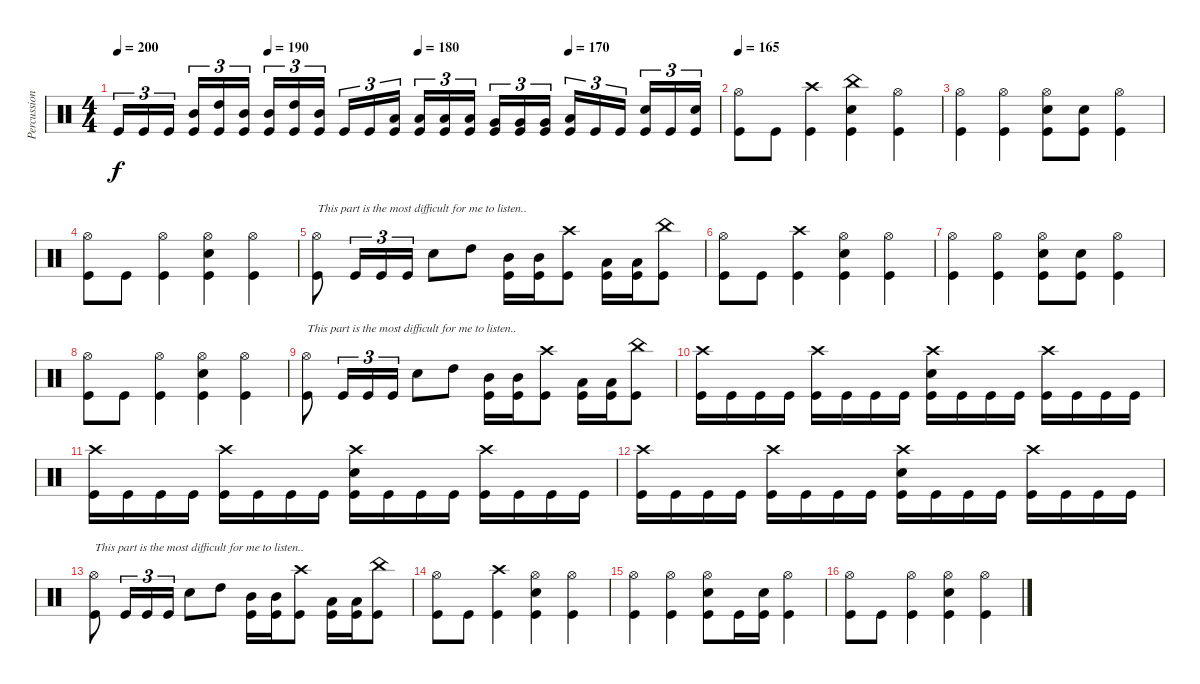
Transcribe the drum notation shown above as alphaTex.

\track ("Percussioni" "Percussion") {instrument percussion}
\staff {score}
\articulation defaults
\ts (4 4)
\tempo 200
\tempo (190 0.25)
\tempo (180 0.5)
\tempo (170 0.75)
\clef neutral
\ks c "Kick (hit)".16{tu (3 2) dy f} "Kick (hit)".16{tu (3 2)} "Kick (hit)".16{tu (3 2)}
("Mid Tom (hit)" "Kick (hit)").16{tu (3 2)} ("High Tom (hit)" "Kick (hit)").16{tu (3 2)} ("Mid Tom (hit)" "Kick (hit)").16{tu (3 2)} ("Mid Tom (hit)" "Kick (hit)").16{tu (3 2)} ("High Tom (hit)" "Kick (hit)").16{tu (3 2)} ("Mid Tom (hit)" "Kick (hit)").16{tu (3 2)} "Kick (hit)".16{tu (3 2)} "Kick (hit)".16{tu (3 2)} ("Low Tom (hit)" "Kick (hit)").16{tu (3 2)} ("Low Tom (hit)" "Kick (hit)").16{tu (3 2)} ("Low Tom (hit)" "Kick (hit)").16{tu (3 2)} ("Low Tom (hit)" "Kick (hit)").16{tu (3 2)} ("Very Low Tom (hit)" "Kick (hit)").16{tu (3 2)} ("Very Low Tom (hit)" "Kick (hit)").16{tu (3 2)} ("Very Low Tom (hit)" "Kick (hit)").16{tu (3 2)} ("Low Floor Tom (hit)" "Kick (hit)").16{tu (3 2)} "Kick (hit)".16{tu (3 2)} "Kick (hit)".16{tu (3 2)} ("Electric Snare (hit)" "Kick (hit)").16{tu (3 2)} "Kick (hit)".16{tu (3 2)} ("Electric Snare (hit)" "Kick (hit)").16{tu (3 2)} |
\tempo 165
("Hi-Hat (open)" "Kick (hit)").8 "Kick (hit)".8 ("Crash high (hit)" "Kick (hit)").4 ("China (hit)" "Electric Snare (hit)" "Kick (hit)").4 ("Hi-Hat (open)" "Kick (hit)").4 |
("Hi-Hat (open)" "Kick (hit)").4 ("Hi-Hat (open)" "Kick (hit)").4 ("Hi-Hat (open)" "Electric Snare (hit)" "Kick (hit)").8 ("Electric Snare (hit)" "Kick (hit)").8 ("Hi-Hat (open)" "Kick (hit)").4 |
("Hi-Hat (open)" "Kick (hit)").8 "Kick (hit)".8 ("Hi-Hat (open)" "Kick (hit)").4 ("Hi-Hat (open)" "Electric Snare (hit)" "Kick (hit)").4 ("Hi-Hat (open)" "Kick (hit)").4 |
("Hi-Hat (open)" "Kick (hit)").8{txt "This part is the most difficult for me to listen.."} "Kick (hit)".16{tu (3 2)} "Kick (hit)".16{tu (3 2)} "Kick (hit)".16{tu (3 2)} "Electric Snare (hit)".8 "High Tom (hit)".8 ("Mid Tom (hit)" "Kick (hit)").16 ("Mid Tom (hit)" "Kick (hit)").16 ("Crash high (hit)" "Kick (hit)").8 ("Low Tom (hit)" "Kick (hit)").16 ("Low Tom (hit)" "Kick (hit)").16 ("China (hit)" "Kick (hit)").8 |
("Hi-Hat (open)" "Kick (hit)").8 "Kick (hit)".8 ("Crash high (hit)" "Kick (hit)").4 ("Hi-Hat (open)" "Electric Snare (hit)" "Kick (hit)").4 ("Hi-Hat (open)" "Kick (hit)").4 |
("Hi-Hat (open)" "Kick (hit)").4 ("Hi-Hat (open)" "Kick (hit)").4 ("Hi-Hat (open)" "Electric Snare (hit)" "Kick (hit)").8 ("Electric Snare (hit)" "Kick (hit)").8 ("Hi-Hat (open)" "Kick (hit)").4 |
("Hi-Hat (open)" "Kick (hit)").8 "Kick (hit)".8 ("Hi-Hat (open)" "Kick (hit)").4 ("Hi-Hat (open)" "Electric Snare (hit)" "Kick (hit)").4 ("Hi-Hat (open)" "Kick (hit)").4 |
("Hi-Hat (open)" "Kick (hit)").8{txt "This part is the most difficult for me to listen.."} "Kick (hit)".16{tu (3 2)} "Kick (hit)".16{tu (3 2)} "Kick (hit)".16{tu (3 2)} "Electric Snare (hit)".8 "High Tom (hit)".8 ("Mid Tom (hit)" "Kick (hit)").16 ("Mid Tom (hit)" "Kick (hit)").16 ("Crash high (hit)" "Kick (hit)").8 ("Low Tom (hit)" "Kick (hit)").16 ("Low Tom (hit)" "Kick (hit)").16 ("China (hit)" "Kick (hit)").8 |
("Crash high (hit)" "Kick (hit)").16 "Kick (hit)".16 "Kick (hit)".16 "Kick (hit)".16 ("Crash high (hit)" "Kick (hit)").16 "Kick (hit)".16 "Kick (hit)".16 "Kick (hit)".16 ("Crash high (hit)" "Electric Snare (hit)" "Kick (hit)").16 "Kick (hit)".16 "Kick (hit)".16 "Kick (hit)".16 ("Crash high (hit)" "Kick (hit)").16 "Kick (hit)".16 "Kick (hit)".16 "Kick (hit)".16 |
("Crash high (hit)" "Kick (hit)").16 "Kick (hit)".16 "Kick (hit)".16 "Kick (hit)".16 ("Crash high (hit)" "Kick (hit)").16 "Kick (hit)".16 "Kick (hit)".16 "Kick (hit)".16 ("Crash high (hit)" "Electric Snare (hit)" "Kick (hit)").16 "Kick (hit)".16 "Kick (hit)".16 "Kick (hit)".16 ("Crash high (hit)" "Kick (hit)").16 "Kick (hit)".16 "Kick (hit)".16 "Kick (hit)".16 |
("Crash high (hit)" "Kick (hit)").16 "Kick (hit)".16 "Kick (hit)".16 "Kick (hit)".16 ("Crash high (hit)" "Kick (hit)").16 "Kick (hit)".16 "Kick (hit)".16 "Kick (hit)".16 ("Crash high (hit)" "Electric Snare (hit)" "Kick (hit)").16 "Kick (hit)".16 "Kick (hit)".16 "Kick (hit)".16 ("Crash high (hit)" "Kick (hit)").16 "Kick (hit)".16 "Kick (hit)".16 "Kick (hit)".16 |
("Hi-Hat (open)" "Kick (hit)").8{txt "This part is the most difficult for me to listen.."} "Kick (hit)".16{tu (3 2)} "Kick (hit)".16{tu (3 2)} "Kick (hit)".16{tu (3 2)} "Electric Snare (hit)".8 "High Tom (hit)".8 ("Mid Tom (hit)" "Kick (hit)").16 ("Mid Tom (hit)" "Kick (hit)").16 ("Crash high (hit)" "Kick (hit)").8 ("Low Tom (hit)" "Kick (hit)").16 ("Low Tom (hit)" "Kick (hit)").16 ("China (hit)" "Kick (hit)").8 |
("Hi-Hat (open)" "Kick (hit)").8 "Kick (hit)".8 ("Crash high (hit)" "Kick (hit)").4 ("Hi-Hat (open)" "Electric Snare (hit)" "Kick (hit)").4 ("Hi-Hat (open)" "Kick (hit)").4 |
("Hi-Hat (open)" "Kick (hit)").4 ("Hi-Hat (open)" "Kick (hit)").4 ("Hi-Hat (open)" "Electric Snare (hit)" "Kick (hit)").8 "Kick (hit)".16 ("Electric Snare (hit)" "Kick (hit)").16 ("Hi-Hat (open)" "Kick (hit)").4 |
("Hi-Hat (open)" "Kick (hit)").8 "Kick (hit)".8 ("Hi-Hat (open)" "Kick (hit)").4 ("Hi-Hat (open)" "Electric Snare (hit)" "Kick (hit)").4 ("Hi-Hat (open)" "Kick (hit)").4
